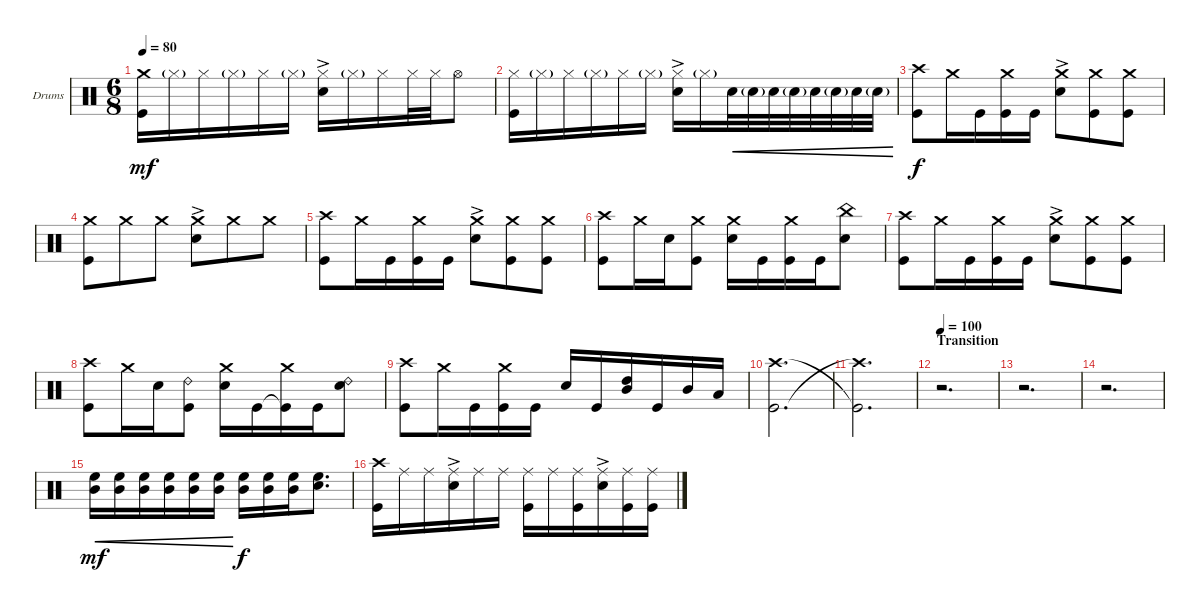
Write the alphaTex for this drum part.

\bracketExtendMode groupsimilarinstruments
\firstSystemTrackNameOrientation horizontal
\otherSystemsTrackNameOrientation horizontal
\track ("Drumkit" "Drums") {instrument percussion}
\staff {score}
\articulation defaults
\ts (6 8)
\tempo 80
\clef neutral
\ks c
("Kick (hit)" "Crash medium (hit)").16{dy mf} "Hi-Hat (closed)"{g}.16 "Hi-Hat (closed)".16 "Hi-Hat (closed)"{g}.16 "Hi-Hat (closed)".16 "Hi-Hat (closed)"{g}.16 ("Hi-Hat (closed)" "Snare (hit) 2"{ac}).16 "Hi-Hat (closed)"{g}.16 "Hi-Hat (closed)".16 "Hi-Hat (closed)".32 "Hi-Hat (closed)".32 "Hi-Hat (open)".8 |
("Kick (hit)" "Hi-Hat (closed)").16 "Hi-Hat (closed)"{g}.16 "Hi-Hat (closed)".16 "Hi-Hat (closed)"{g}.16 "Hi-Hat (closed)".16 "Hi-Hat (closed)"{g}.16 ("Hi-Hat (closed)" "Snare (hit) 2"{ac}).16 "Hi-Hat (closed)"{g}.16 "Snare (hit) 2".32{cre} "Snare (hit) 2"{g}.32{cre} "Snare (hit) 2".32{cre} "Snare (hit) 2"{g}.32{cre} "Snare (hit) 2".32{cre} "Snare (hit) 2"{g}.32{cre} "Snare (hit) 2".32{cre} "Snare (hit) 2"{g}.32{cre} |
("Kick (hit)" "Crash high (hit)").8{dy f} "Crash medium (hit)".16 "Kick (hit)".16 ("Kick (hit)" "Crash medium (hit)").16 "Kick (hit)".16 ("Crash medium (hit)" "Snare (hit) 2"{ac}).8 ("Crash medium (hit)" "Kick (hit)").8 ("Crash medium (hit)" "Kick (hit)").8 |
("Kick (hit)" "Crash medium (hit)").8 "Crash medium (hit)".8 "Crash medium (hit)".8 ("Crash medium (hit)" "Snare (hit) 2"{ac}).8 "Crash medium (hit)".8 "Crash medium (hit)".8 |
("Kick (hit)" "Crash high (hit)").8 "Crash medium (hit)".16 "Kick (hit)".16 ("Kick (hit)" "Crash medium (hit)").16 "Kick (hit)".16 ("Crash medium (hit)" "Snare (hit) 2"{ac}).8 ("Crash medium (hit)" "Kick (hit)").8 ("Crash medium (hit)" "Kick (hit)").8 |
("Kick (hit)" "Crash high (hit)").8 "Crash medium (hit)".16 "Snare (hit) 2".16 ("Kick (hit)" "Crash medium (hit)").8 ("Snare (hit) 2" "Crash medium (hit)").16 "Kick (hit)".16 ("Kick (hit)" "Crash medium (hit)").16 "Kick (hit)".16 ("Snare (hit) 2" "China (hit)").8 |
("Kick (hit)" "Crash high (hit)").8 "Crash medium (hit)".16 "Kick (hit)".16 ("Kick (hit)" "Crash medium (hit)").16 "Kick (hit)".16 ("Crash medium (hit)" "Snare (hit) 2"{ac}).8 ("Crash medium (hit)" "Kick (hit)").8 ("Crash medium (hit)" "Kick (hit)").8 |
("Kick (hit)" "Crash high (hit)").8 "Crash medium (hit)".16 "Snare (hit) 2".16 ("Kick (hit)" "Ride (bell) 2").8 ("Snare (hit) 2" "Crash medium (hit)").16 "Kick (hit)".16 ("Kick (hit)"{t} "Crash medium (hit)").16 "Kick (hit)".16 ("Snare (hit) 2" "Ride (bell) 2").8 |
("Kick (hit)" "Crash high (hit)").8 "Crash medium (hit)".16 "Kick (hit)".16 ("Kick (hit)" "Crash medium (hit)").16 "Kick (hit)".16 "Snare (hit) 2".16 "Kick (hit)".16 ("Mid Tom (hit)" "High Tom (hit)").16 "Kick (hit)".16 "Mid Tom (hit)".16 "Low Tom (hit)".16 |
("Kick (hit)" "Crash high (hit)").2{d} |
("Crash high (hit)"{t} "Kick (hit)"{t}).2{d} |
\section ("" "Transition")
\tempo 100
r.2{d} |
r.2{d} |
r.2{d} |
("Mid Tom (hit)" "High Floor Tom (hit)").16{cre dy mf} ("Mid Tom (hit)" "High Floor Tom (hit)").16{cre} ("Mid Tom (hit)" "High Floor Tom (hit)").16{cre} ("Mid Tom (hit)" "High Floor Tom (hit)").16{cre} ("Mid Tom (hit)" "High Floor Tom (hit)").16{cre} ("Mid Tom (hit)" "High Floor Tom (hit)").16{cre} ("Mid Tom (hit)" "High Floor Tom (hit)").16{dy f} ("Mid Tom (hit)" "High Floor Tom (hit)").16 ("Mid Tom (hit)" "High Floor Tom (hit)").16 ("Snare (hit) 2" "High Floor Tom (hit)").8{d} |
("Crash high (hit)" "Kick (hit)").16 "Ride (middle)".16 "Ride (middle)".16 ("Ride (middle)" "Snare (hit) 2"{ac}).16 "Ride (middle)".16 "Ride (middle)".16 ("Ride (middle)" "Kick (hit)").16 "Ride (middle)".16 ("Ride (middle)" "Kick (hit)").16 ("Ride (middle)" "Snare (hit) 2"{ac}).16 ("Ride (middle)" "Kick (hit)").16 ("Ride (middle)" "Kick (hit)").16
